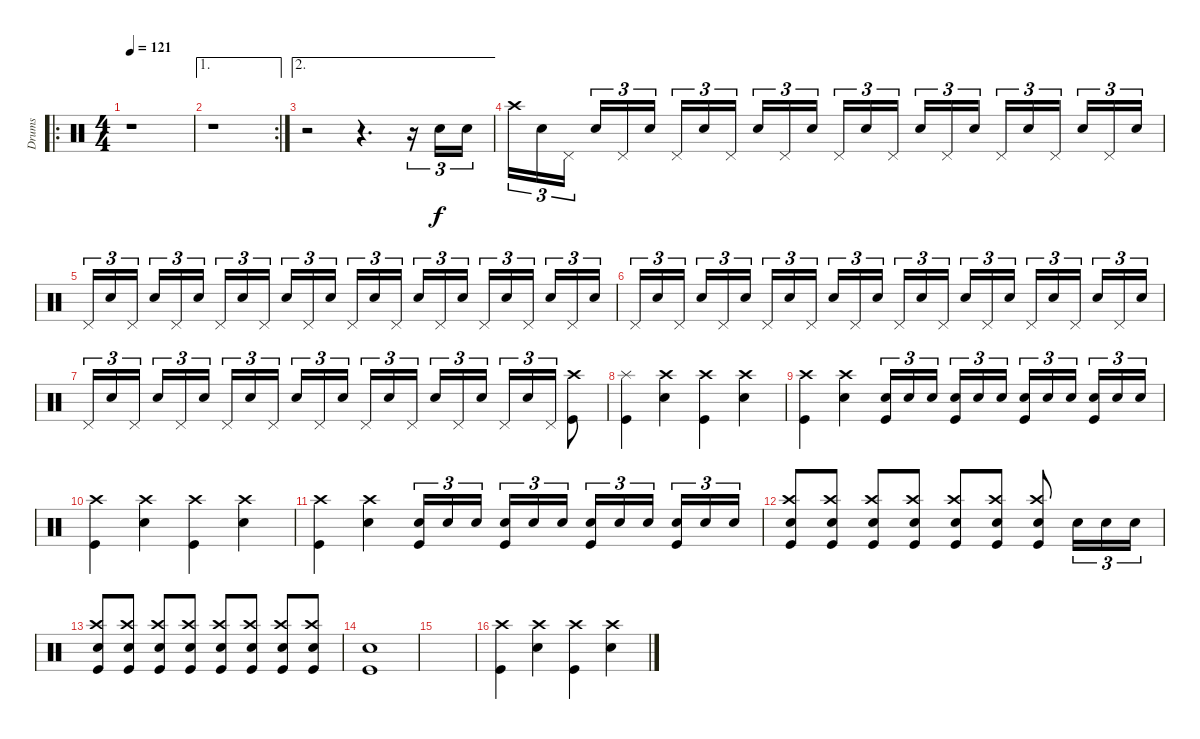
\track ("Drums" "Drums") {instrument percussion}
\staff {score}
\articulation defaults
\ro
\ts (4 4)
\tempo 121
\clef neutral
\ks c
r.1{dy f} |
\ae 1
\rc 2
r.1 |
\ae 2
r.2 r.4{d} r.16{tu (3 2)} "Electric Snare (hit)".16{tu (3 2)} "Electric Snare (hit)".16{tu (3 2)} |
"Crash high (hit)".16{tu (3 2)} "Electric Snare (hit)".16{tu (3 2)} "Pedal Hi-Hat (hit)".16{tu (3 2)} "Electric Snare (hit)".16{tu (3 2)} "Pedal Hi-Hat (hit)".16{tu (3 2)} "Electric Snare (hit)".16{tu (3 2)} "Pedal Hi-Hat (hit)".16{tu (3 2)} "Electric Snare (hit)".16{tu (3 2)} "Pedal Hi-Hat (hit)".16{tu (3 2)} "Electric Snare (hit)".16{tu (3 2)} "Pedal Hi-Hat (hit)".16{tu (3 2)} "Electric Snare (hit)".16{tu (3 2)} "Pedal Hi-Hat (hit)".16{tu (3 2)} "Electric Snare (hit)".16{tu (3 2)} "Pedal Hi-Hat (hit)".16{tu (3 2)} "Electric Snare (hit)".16{tu (3 2)} "Pedal Hi-Hat (hit)".16{tu (3 2)} "Electric Snare (hit)".16{tu (3 2)} "Pedal Hi-Hat (hit)".16{tu (3 2)} "Electric Snare (hit)".16{tu (3 2)} "Pedal Hi-Hat (hit)".16{tu (3 2)} "Electric Snare (hit)".16{tu (3 2)} "Pedal Hi-Hat (hit)".16{tu (3 2)} "Electric Snare (hit)".16{tu (3 2)} |
"Pedal Hi-Hat (hit)".16{tu (3 2)} "Electric Snare (hit)".16{tu (3 2)} "Pedal Hi-Hat (hit)".16{tu (3 2)} "Electric Snare (hit)".16{tu (3 2)} "Pedal Hi-Hat (hit)".16{tu (3 2)} "Electric Snare (hit)".16{tu (3 2)} "Pedal Hi-Hat (hit)".16{tu (3 2)} "Electric Snare (hit)".16{tu (3 2)} "Pedal Hi-Hat (hit)".16{tu (3 2)} "Electric Snare (hit)".16{tu (3 2)} "Pedal Hi-Hat (hit)".16{tu (3 2)} "Electric Snare (hit)".16{tu (3 2)} "Pedal Hi-Hat (hit)".16{tu (3 2)} "Electric Snare (hit)".16{tu (3 2)} "Pedal Hi-Hat (hit)".16{tu (3 2)} "Electric Snare (hit)".16{tu (3 2)} "Pedal Hi-Hat (hit)".16{tu (3 2)} "Electric Snare (hit)".16{tu (3 2)} "Pedal Hi-Hat (hit)".16{tu (3 2)} "Electric Snare (hit)".16{tu (3 2)} "Pedal Hi-Hat (hit)".16{tu (3 2)} "Electric Snare (hit)".16{tu (3 2)} "Pedal Hi-Hat (hit)".16{tu (3 2)} "Electric Snare (hit)".16{tu (3 2)} |
"Pedal Hi-Hat (hit)".16{tu (3 2)} "Electric Snare (hit)".16{tu (3 2)} "Pedal Hi-Hat (hit)".16{tu (3 2)} "Electric Snare (hit)".16{tu (3 2)} "Pedal Hi-Hat (hit)".16{tu (3 2)} "Electric Snare (hit)".16{tu (3 2)} "Pedal Hi-Hat (hit)".16{tu (3 2)} "Electric Snare (hit)".16{tu (3 2)} "Pedal Hi-Hat (hit)".16{tu (3 2)} "Electric Snare (hit)".16{tu (3 2)} "Pedal Hi-Hat (hit)".16{tu (3 2)} "Electric Snare (hit)".16{tu (3 2)} "Pedal Hi-Hat (hit)".16{tu (3 2)} "Electric Snare (hit)".16{tu (3 2)} "Pedal Hi-Hat (hit)".16{tu (3 2)} "Electric Snare (hit)".16{tu (3 2)} "Pedal Hi-Hat (hit)".16{tu (3 2)} "Electric Snare (hit)".16{tu (3 2)} "Pedal Hi-Hat (hit)".16{tu (3 2)} "Electric Snare (hit)".16{tu (3 2)} "Pedal Hi-Hat (hit)".16{tu (3 2)} "Electric Snare (hit)".16{tu (3 2)} "Pedal Hi-Hat (hit)".16{tu (3 2)} "Electric Snare (hit)".16{tu (3 2)} |
"Pedal Hi-Hat (hit)".16{tu (3 2)} "Electric Snare (hit)".16{tu (3 2)} "Pedal Hi-Hat (hit)".16{tu (3 2)} "Electric Snare (hit)".16{tu (3 2)} "Pedal Hi-Hat (hit)".16{tu (3 2)} "Electric Snare (hit)".16{tu (3 2)} "Pedal Hi-Hat (hit)".16{tu (3 2)} "Electric Snare (hit)".16{tu (3 2)} "Pedal Hi-Hat (hit)".16{tu (3 2)} "Electric Snare (hit)".16{tu (3 2)} "Pedal Hi-Hat (hit)".16{tu (3 2)} "Electric Snare (hit)".16{tu (3 2)} "Pedal Hi-Hat (hit)".16{tu (3 2)} "Electric Snare (hit)".16{tu (3 2)} "Pedal Hi-Hat (hit)".16{tu (3 2)} "Electric Snare (hit)".16{tu (3 2)} "Pedal Hi-Hat (hit)".16{tu (3 2)} "Electric Snare (hit)".16{tu (3 2)} "Pedal Hi-Hat (hit)".16{tu (3 2)} "Electric Snare (hit)".16{tu (3 2)} "Pedal Hi-Hat (hit)".16{tu (3 2)} ("Crash high (hit)" "Kick (hit)").8 |
("Splash (hit)" "Kick (hit)").4 ("Crash high (hit)" "Electric Snare (hit)").4 ("Crash high (hit)" "Kick (hit)").4 ("Crash high (hit)" "Electric Snare (hit)").4 |
("Crash high (hit)" "Kick (hit)").4 ("Crash high (hit)" "Electric Snare (hit)").4 ("Electric Snare (hit)" "Kick (hit)").16{tu (3 2)} "Electric Snare (hit)".16{tu (3 2)} "Electric Snare (hit)".16{tu (3 2)} ("Electric Snare (hit)" "Kick (hit)").16{tu (3 2)} "Electric Snare (hit)".16{tu (3 2)} "Electric Snare (hit)".16{tu (3 2)} ("Electric Snare (hit)" "Kick (hit)").16{tu (3 2)} "Electric Snare (hit)".16{tu (3 2)} "Electric Snare (hit)".16{tu (3 2)} ("Electric Snare (hit)" "Kick (hit)").16{tu (3 2)} "Electric Snare (hit)".16{tu (3 2)} "Electric Snare (hit)".16{tu (3 2)} |
("Crash high (hit)" "Kick (hit)").4 ("Crash high (hit)" "Electric Snare (hit)").4 ("Crash high (hit)" "Kick (hit)").4 ("Crash high (hit)" "Electric Snare (hit)").4 |
("Crash high (hit)" "Kick (hit)").4 ("Crash high (hit)" "Electric Snare (hit)").4 ("Electric Snare (hit)" "Kick (hit)").16{tu (3 2)} "Electric Snare (hit)".16{tu (3 2)} "Electric Snare (hit)".16{tu (3 2)} ("Electric Snare (hit)" "Kick (hit)").16{tu (3 2)} "Electric Snare (hit)".16{tu (3 2)} "Electric Snare (hit)".16{tu (3 2)} ("Electric Snare (hit)" "Kick (hit)").16{tu (3 2)} "Electric Snare (hit)".16{tu (3 2)} "Electric Snare (hit)".16{tu (3 2)} ("Electric Snare (hit)" "Kick (hit)").16{tu (3 2)} "Electric Snare (hit)".16{tu (3 2)} "Electric Snare (hit)".16{tu (3 2)} |
("Crash high (hit)" "Electric Snare (hit)" "Kick (hit)").8 ("Crash high (hit)" "Electric Snare (hit)" "Kick (hit)").8 ("Crash high (hit)" "Electric Snare (hit)" "Kick (hit)").8 ("Crash high (hit)" "Electric Snare (hit)" "Kick (hit)").8 ("Crash high (hit)" "Electric Snare (hit)" "Kick (hit)").8 ("Crash high (hit)" "Electric Snare (hit)" "Kick (hit)").8 ("Crash high (hit)" "Electric Snare (hit)" "Kick (hit)").8 "Electric Snare (hit)".16{tu (3 2)} "Electric Snare (hit)".16{tu (3 2)} "Electric Snare (hit)".16{tu (3 2)} |
("Crash high (hit)" "Electric Snare (hit)" "Kick (hit)").8 ("Crash high (hit)" "Electric Snare (hit)" "Kick (hit)").8 ("Crash high (hit)" "Electric Snare (hit)" "Kick (hit)").8 ("Crash high (hit)" "Electric Snare (hit)" "Kick (hit)").8 ("Crash high (hit)" "Electric Snare (hit)" "Kick (hit)").8 ("Crash high (hit)" "Electric Snare (hit)" "Kick (hit)").8 ("Crash high (hit)" "Electric Snare (hit)" "Kick (hit)").8 ("Crash high (hit)" "Electric Snare (hit)" "Kick (hit)").8 |
("Electric Snare (hit)" "Kick (hit)").1 |
|
("Crash high (hit)" "Kick (hit)").4 ("Crash high (hit)" "Electric Snare (hit)").4 ("Crash high (hit)" "Kick (hit)").4 ("Crash high (hit)" "Electric Snare (hit)").4
